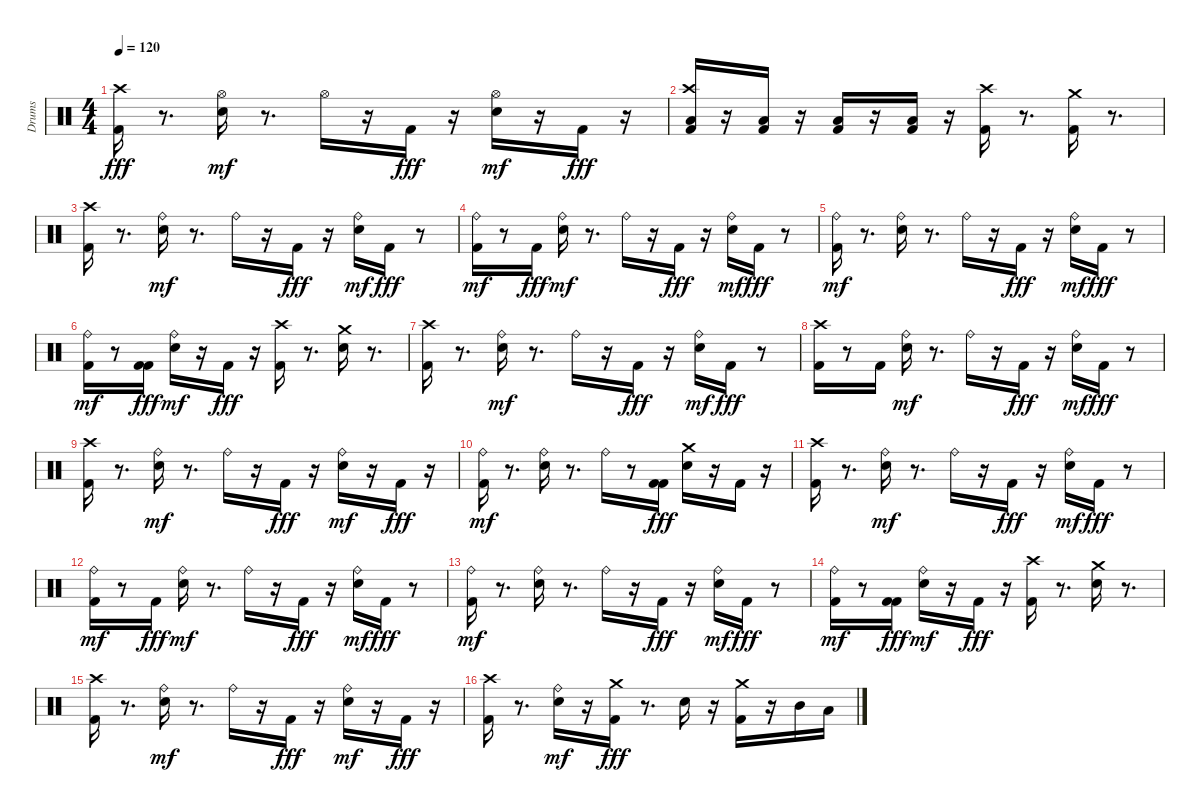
\track ("Drums" "Drums") {instrument percussion}
\staff {score}
\articulation defaults
\ts (4 4)
\tempo 120
\clef neutral
\ks c
("Kick (hit) 2" "Crash high (hit)").16{dy fff} r.8{d} ("Electric Snare (hit)" "Hi-Hat (open)").16{dy mf} r.8{d} "Hi-Hat (open)".16 r.16 "Kick (hit) 2".16{dy fff} r.16 ("Electric Snare (hit)" "Hi-Hat (open)").16{dy mf} r.16 "Kick (hit) 2".16{dy fff} r.16 |
("Kick (hit) 2" "Low Floor Tom (hit)" "Crash high (hit)").16 r.16 ("Kick (hit) 2" "Low Floor Tom (hit)").16 r.16 ("Kick (hit) 2" "Low Floor Tom (hit)").16 r.16 ("Kick (hit) 2" "Low Floor Tom (hit)").16 r.16 ("Kick (hit) 2" "Crash high (hit)").16 r.8{d} ("Kick (hit) 2" "Crash medium (hit)").16 r.8{d} |
("Kick (hit) 2" "Crash high (hit)").16 r.8{d} ("Electric Snare (hit)" "Ride (bell)").16{dy mf} r.8{d} "Ride (bell)".16 r.16 "Kick (hit) 2".16{dy fff} r.16 ("Electric Snare (hit)" "Ride (bell)").16{dy mf} "Kick (hit) 2".16{dy fff} r.8 |
("Kick (hit) 2" "Ride (bell)").16{dy mf} r.8 "Kick (hit) 2".16{dy fff} ("Electric Snare (hit)" "Ride (bell)").16{dy mf} r.8{d} "Ride (bell)".16 r.16 "Kick (hit) 2".16{dy fff} r.16 ("Electric Snare (hit)" "Ride (bell)").16{dy mf} "Kick (hit) 2".16{dy fff} r.8 |
("Kick (hit) 2" "Ride (bell)").16{dy mf} r.8{d} ("Electric Snare (hit)" "Ride (bell)").16 r.8{d} "Ride (bell)".16 r.16 "Kick (hit) 2".16{dy fff} r.16 ("Electric Snare (hit)" "Ride (bell)").16{dy mf} "Kick (hit) 2".16{dy fff} r.8 |
("Kick (hit) 2" "Ride (bell)").16{dy mf} r.8 ("Kick (hit) 2" "Kick (hit) 2").16{dy fff} ("Electric Snare (hit)" "Ride (bell)").16{dy mf} r.16 "Kick (hit) 2".16{dy fff} r.16 ("Kick (hit) 2" "Crash high (hit)").16 r.8{d} ("Electric Snare (hit)" "Crash medium (hit)").16 r.8{d} |
("Kick (hit) 2" "Crash high (hit)").16 r.8{d} ("Electric Snare (hit)" "Ride (bell)").16{dy mf} r.8{d} "Ride (bell)".16 r.16 "Kick (hit) 2".16{dy fff} r.16 ("Electric Snare (hit)" "Ride (bell)").16{dy mf} "Kick (hit) 2".16{dy fff} r.8 |
("Kick (hit) 2" "Crash high (hit)").16 r.8 "Kick (hit) 2".16 ("Electric Snare (hit)" "Ride (bell)").16{dy mf} r.8{d} "Ride (bell)".16 r.16 "Kick (hit) 2".16{dy fff} r.16 ("Electric Snare (hit)" "Ride (bell)").16{dy mf} "Kick (hit) 2".16{dy fff} r.8 |
("Kick (hit) 2" "Crash high (hit)").16 r.8{d} ("Electric Snare (hit)" "Ride (bell)").16{dy mf} r.8{d} "Ride (bell)".16 r.16 "Kick (hit) 2".16{dy fff} r.16 ("Electric Snare (hit)" "Ride (bell)").16{dy mf} r.16 "Kick (hit) 2".16{dy fff} r.16 |
("Kick (hit) 2" "Ride (bell)").16{dy mf} r.8{d} ("Electric Snare (hit)" "Ride (bell)").16 r.8{d} "Ride (bell)".16 r.8 ("Kick (hit) 2" "Kick (hit) 2").16{dy fff} ("Electric Snare (hit)" "Crash medium (hit)").16 r.16 "Kick (hit) 2".16 r.16 |
("Kick (hit) 2" "Crash high (hit)").16 r.8{d} ("Electric Snare (hit)" "Ride (bell)").16{dy mf} r.8{d} "Ride (bell)".16 r.16 "Kick (hit) 2".16{dy fff} r.16 ("Electric Snare (hit)" "Ride (bell)").16{dy mf} "Kick (hit) 2".16{dy fff} r.8 |
("Kick (hit) 2" "Ride (bell)").16{dy mf} r.8 "Kick (hit) 2".16{dy fff} ("Electric Snare (hit)" "Ride (bell)").16{dy mf} r.8{d} "Ride (bell)".16 r.16 "Kick (hit) 2".16{dy fff} r.16 ("Electric Snare (hit)" "Ride (bell)").16{dy mf} "Kick (hit) 2".16{dy fff} r.8 |
("Kick (hit) 2" "Ride (bell)").16{dy mf} r.8{d} ("Electric Snare (hit)" "Ride (bell)").16 r.8{d} "Ride (bell)".16 r.16 "Kick (hit) 2".16{dy fff} r.16 ("Electric Snare (hit)" "Ride (bell)").16{dy mf} "Kick (hit) 2".16{dy fff} r.8 |
("Kick (hit) 2" "Ride (bell)").16{dy mf} r.8 ("Kick (hit) 2" "Kick (hit) 2").16{dy fff} ("Electric Snare (hit)" "Ride (bell)").16{dy mf} r.16 "Kick (hit) 2".16{dy fff} r.16 ("Kick (hit) 2" "Crash high (hit)").16 r.8{d} ("Electric Snare (hit)" "Crash medium (hit)").16 r.8{d} |
("Kick (hit) 2" "Crash high (hit)").16 r.8{d} ("Electric Snare (hit)" "Ride (bell)").16{dy mf} r.8{d} "Ride (bell)".16 r.16 "Kick (hit) 2".16{dy fff} r.16 ("Electric Snare (hit)" "Ride (bell)").16{dy mf} r.16 "Kick (hit) 2".16{dy fff} r.16 |
("Kick (hit) 2" "Crash high (hit)").16 r.8{d} ("Electric Snare (hit)" "Ride (bell)").16{dy mf} r.16 ("Kick (hit) 2" "Crash medium (hit)").16{dy fff} r.8{d} "Electric Snare (hit)".16 r.16 ("Kick (hit) 2" "Crash medium (hit)").16 r.16 "Mid Tom (hit)".16 "Low Tom (hit)".16
